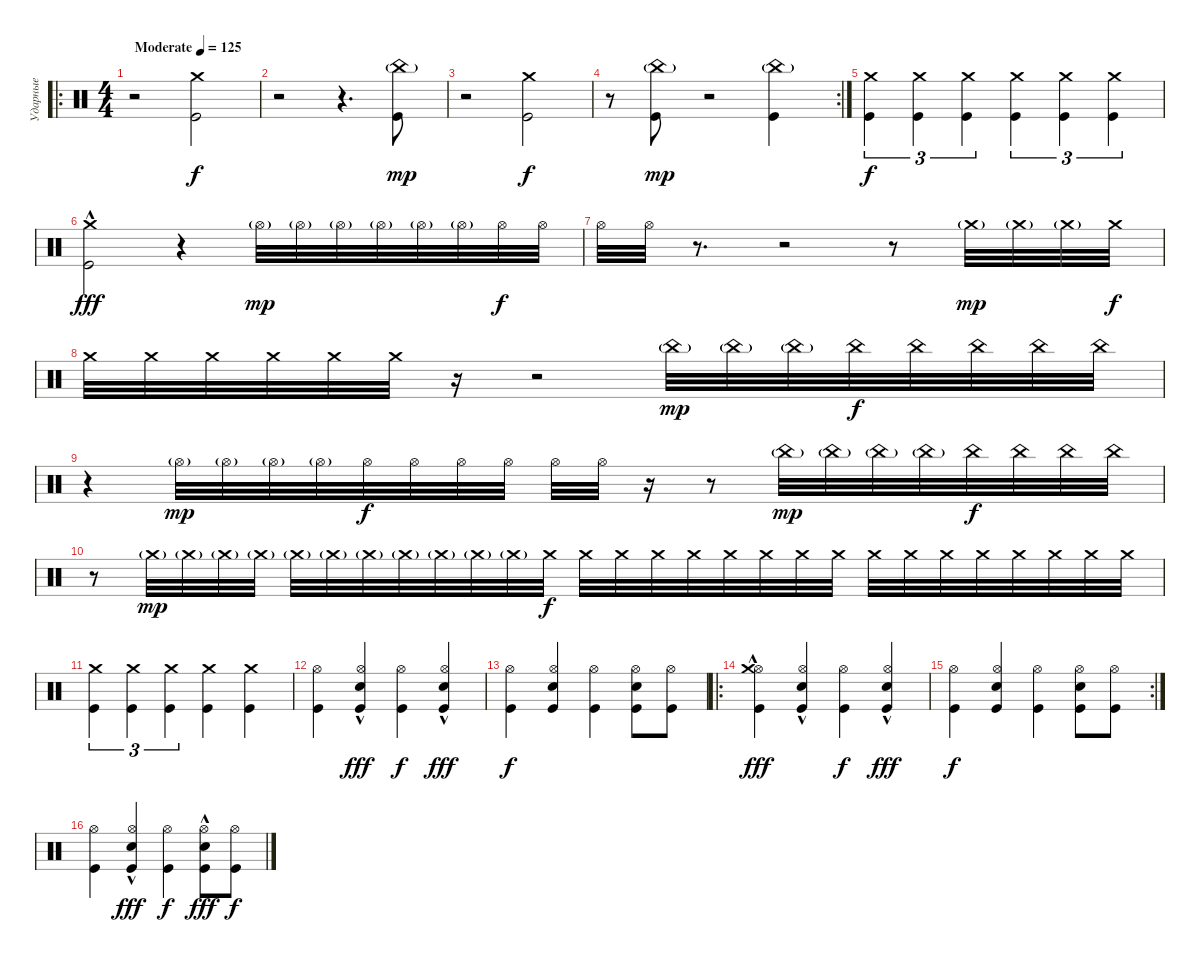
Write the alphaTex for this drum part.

\track ("Ударные" "Ударные") {instrument percussion}
\staff {score}
\articulation defaults
\ro
\ts (4 4)
\tempo (125 "Moderate")
\clef neutral
\ks c
r.2{dy f} ("Crash medium (hit)" "Kick (hit)").2 |
r.2 r.4{d} ("China (hit)"{g} "Kick (hit)").8{dy mp} |
r.2 ("Crash medium (hit)" "Kick (hit)").2{dy f} |
\rc 2
r.8 ("China (hit)"{g} "Kick (hit)").8{dy mp} r.2 ("China (hit)"{g} "Kick (hit)").4 |
("Crash medium (hit)" "Kick (hit)").4{tu (3 2) dy f} ("Crash medium (hit)" "Kick (hit)").4{tu (3 2)} ("Crash medium (hit)" "Kick (hit)").4{tu (3 2)} ("Crash medium (hit)" "Kick (hit)").4{tu (3 2)} ("Crash medium (hit)" "Kick (hit)").4{tu (3 2)} ("Crash medium (hit)" "Kick (hit)").4{tu (3 2)} |
("Crash medium (hit)"{hac} "Kick (hit)"{hac}).2{dy fff} r.4 "Hi-Hat (open)"{g}.32{dy mp} "Hi-Hat (open)"{g}.32 "Hi-Hat (open)"{g}.32 "Hi-Hat (open)"{g}.32 "Hi-Hat (open)"{g}.32 "Hi-Hat (open)"{g}.32 "Hi-Hat (open)".32{dy f} "Hi-Hat (open)".32 |
"Hi-Hat (open)".32 "Hi-Hat (open)".32 r.8{d} r.2 r.8 "Crash medium (hit)"{g}.32{dy mp} "Crash medium (hit)"{g}.32 "Crash medium (hit)"{g}.32 "Crash medium (hit)".32{dy f} |
"Crash medium (hit)".32 "Crash medium (hit)".32 "Crash medium (hit)".32 "Crash medium (hit)".32 "Crash medium (hit)".32 "Crash medium (hit)".32 r.16 r.2 "China (hit)"{g}.32{dy mp} "China (hit)"{g}.32 "China (hit)"{g}.32 "China (hit)".32{dy f} "China (hit)".32 "China (hit)".32 "China (hit)".32 "China (hit)".32 |
r.4 "Hi-Hat (open)"{g}.32{dy mp} "Hi-Hat (open)"{g}.32 "Hi-Hat (open)"{g}.32 "Hi-Hat (open)"{g}.32 "Hi-Hat (open)".32{dy f} "Hi-Hat (open)".32 "Hi-Hat (open)".32 "Hi-Hat (open)".32 "Hi-Hat (open)".32 "Hi-Hat (open)".32 r.16 r.8 "China (hit)"{g}.32{dy mp} "China (hit)"{g}.32 "China (hit)"{g}.32 "China (hit)"{g}.32 "China (hit)".32{dy f} "China (hit)".32 "China (hit)".32 "China (hit)".32 |
r.8 "Crash medium (hit)"{g}.32{dy mp} "Crash medium (hit)"{g}.32 "Crash medium (hit)"{g}.32 "Crash medium (hit)"{g}.32 "Crash medium (hit)"{g}.32 "Crash medium (hit)"{g}.32 "Crash medium (hit)"{g}.32 "Crash medium (hit)"{g}.32 "Crash medium (hit)"{g}.32 "Crash medium (hit)"{g}.32 "Crash medium (hit)"{g}.32 "Crash medium (hit)".32{dy f} "Crash medium (hit)".32 "Crash medium (hit)".32 "Crash medium (hit)".32 "Crash medium (hit)".32 "Crash medium (hit)".32 "Crash medium (hit)".32 "Crash medium (hit)".32 "Crash medium (hit)".32 "Crash medium (hit)".32 "Crash medium (hit)".32 "Crash medium (hit)".32 "Crash medium (hit)".32 "Crash medium (hit)".32 "Crash medium (hit)".32 "Crash medium (hit)".32 "Crash medium (hit)".32 |
("Crash medium (hit)" "Kick (hit)").4{tu (3 2)} ("Crash medium (hit)" "Kick (hit)").4{tu (3 2)} ("Crash medium (hit)" "Kick (hit)").4{tu (3 2)} ("Crash medium (hit)" "Kick (hit)").4 ("Crash medium (hit)" "Kick (hit)").4 |
("Hi-Hat (open)" "Kick (hit)").4 ("Electric Snare (hit)"{hac} "Hi-Hat (open)" "Kick (hit)").4{dy fff} ("Hi-Hat (open)" "Kick (hit)").4{dy f} ("Electric Snare (hit)"{hac} "Hi-Hat (open)" "Kick (hit)").4{dy fff} |
("Hi-Hat (open)" "Kick (hit)").4{dy f} ("Electric Snare (hit)" "Hi-Hat (open)" "Kick (hit)").4 ("Hi-Hat (open)" "Kick (hit)").4 ("Electric Snare (hit)" "Hi-Hat (open)" "Kick (hit)").8 ("Hi-Hat (open)" "Kick (hit)").8 |
\ro
("Hi-Hat (open)" "Kick (hit)" "Crash medium (hit)"{hac}).4{dy fff} ("Electric Snare (hit)"{hac} "Hi-Hat (open)" "Kick (hit)").4 ("Hi-Hat (open)" "Kick (hit)").4{dy f} ("Electric Snare (hit)"{hac} "Hi-Hat (open)" "Kick (hit)").4{dy fff} |
\rc 2
("Hi-Hat (open)" "Kick (hit)").4{dy f} ("Electric Snare (hit)" "Hi-Hat (open)" "Kick (hit)").4 ("Hi-Hat (open)" "Kick (hit)").4 ("Electric Snare (hit)" "Hi-Hat (open)" "Kick (hit)").8 ("Hi-Hat (open)" "Kick (hit)").8 |
("Hi-Hat (open)" "Kick (hit)").4 ("Electric Snare (hit)"{hac} "Hi-Hat (open)" "Kick (hit)").4{dy fff} ("Hi-Hat (open)" "Kick (hit)").4{dy f} ("Electric Snare (hit)"{hac} "Hi-Hat (open)" "Kick (hit)").8{dy fff} ("Hi-Hat (open)" "Kick (hit)").8{dy f}
